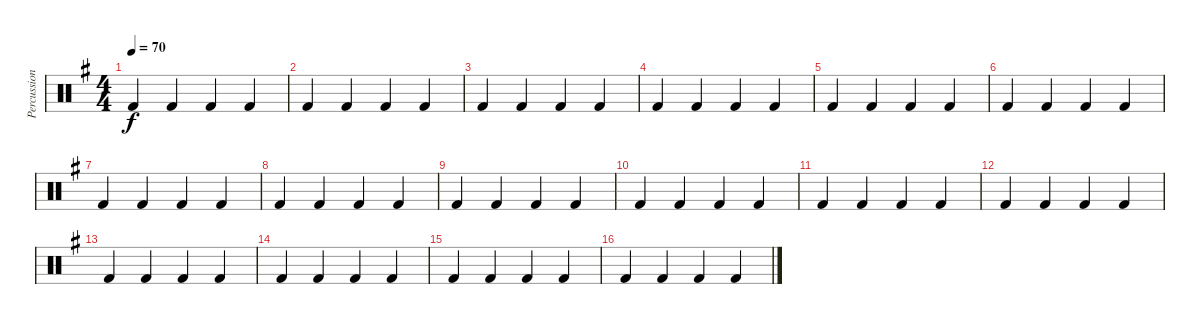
\track ("Percussion" "Percussion") {instrument percussion}
\staff {score}
\articulation defaults
\ts (4 4)
\tempo 70
\clef neutral
\ks eminor "Kick (hit) 2".4{dy f} "Kick (hit) 2".4 "Kick (hit) 2".4 "Kick (hit) 2".4
|
"Kick (hit) 2".4 "Kick (hit) 2".4 "Kick (hit) 2".4 "Kick (hit) 2".4 |
"Kick (hit) 2".4 "Kick (hit) 2".4 "Kick (hit) 2".4 "Kick (hit) 2".4 |
"Kick (hit) 2".4 "Kick (hit) 2".4 "Kick (hit) 2".4 "Kick (hit) 2".4 |
"Kick (hit) 2".4 "Kick (hit) 2".4 "Kick (hit) 2".4 "Kick (hit) 2".4 |
"Kick (hit) 2".4 "Kick (hit) 2".4 "Kick (hit) 2".4 "Kick (hit) 2".4 |
"Kick (hit) 2".4 "Kick (hit) 2".4 "Kick (hit) 2".4 "Kick (hit) 2".4 |
"Kick (hit) 2".4 "Kick (hit) 2".4 "Kick (hit) 2".4 "Kick (hit) 2".4 |
"Kick (hit) 2".4 "Kick (hit) 2".4 "Kick (hit) 2".4 "Kick (hit) 2".4 |
"Kick (hit) 2".4 "Kick (hit) 2".4 "Kick (hit) 2".4 "Kick (hit) 2".4 |
"Kick (hit) 2".4 "Kick (hit) 2".4 "Kick (hit) 2".4 "Kick (hit) 2".4 |
"Kick (hit) 2".4 "Kick (hit) 2".4 "Kick (hit) 2".4 "Kick (hit) 2".4 |
"Kick (hit) 2".4 "Kick (hit) 2".4 "Kick (hit) 2".4 "Kick (hit) 2".4 |
"Kick (hit) 2".4 "Kick (hit) 2".4 "Kick (hit) 2".4 "Kick (hit) 2".4 |
"Kick (hit) 2".4 "Kick (hit) 2".4 "Kick (hit) 2".4 "Kick (hit) 2".4 |
"Kick (hit) 2".4 "Kick (hit) 2".4 "Kick (hit) 2".4 "Kick (hit) 2".4
